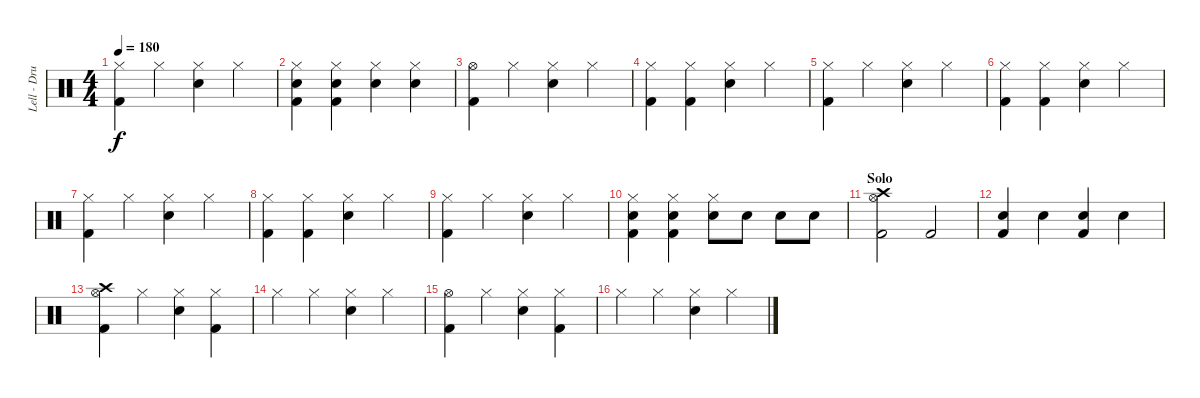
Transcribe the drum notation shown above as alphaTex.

\track ("Lell - Drums" "Lell - Dru") {instrument percussion}
\staff {score}
\articulation defaults
\ts (4 4)
\tempo 180
\clef neutral
\ks c
("Hi-Hat (closed)" "Kick (hit) 2").4{dy f} "Hi-Hat (closed)".4 ("Hi-Hat (closed)" "Snare (hit) 2").4 "Hi-Hat (closed)".4 |
("Hi-Hat (closed)" "Snare (hit) 2" "Kick (hit) 2").4 ("Hi-Hat (closed)" "Snare (hit) 2" "Kick (hit) 2").4 ("Hi-Hat (closed)" "Snare (hit) 2").4 ("Hi-Hat (closed)" "Snare (hit) 2").4 |
("Hi-Hat (open)" "Kick (hit) 2").4 "Hi-Hat (closed)".4 ("Hi-Hat (closed)" "Snare (hit) 2").4 "Hi-Hat (closed)".4 |
("Hi-Hat (closed)" "Kick (hit) 2").4 ("Hi-Hat (closed)" "Kick (hit) 2").4 ("Hi-Hat (closed)" "Snare (hit) 2").4 "Hi-Hat (closed)".4 |
("Hi-Hat (closed)" "Kick (hit) 2").4 "Hi-Hat (closed)".4 ("Hi-Hat (closed)" "Snare (hit) 2").4 "Hi-Hat (closed)".4 |
("Hi-Hat (closed)" "Kick (hit) 2").4 ("Hi-Hat (closed)" "Kick (hit) 2").4 ("Hi-Hat (closed)" "Snare (hit) 2").4 "Hi-Hat (closed)".4 |
("Hi-Hat (closed)" "Kick (hit) 2").4 "Hi-Hat (closed)".4 ("Hi-Hat (closed)" "Snare (hit) 2").4 "Hi-Hat (closed)".4 |
("Hi-Hat (closed)" "Kick (hit) 2").4 ("Hi-Hat (closed)" "Kick (hit) 2").4 ("Hi-Hat (closed)" "Snare (hit) 2").4 "Hi-Hat (closed)".4 |
("Hi-Hat (closed)" "Kick (hit) 2").4 "Hi-Hat (closed)".4 ("Hi-Hat (closed)" "Snare (hit) 2").4 "Hi-Hat (closed)".4 |
("Hi-Hat (closed)" "Snare (hit) 2" "Kick (hit) 2").4 ("Hi-Hat (closed)" "Snare (hit) 2" "Kick (hit) 2").4 ("Hi-Hat (closed)" "Snare (hit) 2").8 "Snare (hit) 2".8 "Snare (hit) 2".8 "Snare (hit) 2".8 |
\section ("" "Solo")
("Crash high (hit)" "Hi-Hat (open)" "Kick (hit) 2").2 "Kick (hit) 2".2 |
("Snare (hit) 2" "Kick (hit) 2").4 "Snare (hit) 2".4 ("Snare (hit) 2" "Kick (hit) 2").4 "Snare (hit) 2".4 |
("Crash high (hit)" "Hi-Hat (open)" "Kick (hit) 2").4 "Hi-Hat (closed)".4 ("Hi-Hat (closed)" "Snare (hit) 2").4 ("Hi-Hat (closed)" "Kick (hit) 2").4 |
"Hi-Hat (closed)".4 "Hi-Hat (closed)".4 ("Hi-Hat (closed)" "Snare (hit) 2").4 "Hi-Hat (closed)".4 |
("Hi-Hat (open)" "Kick (hit) 2").4 "Hi-Hat (closed)".4 ("Hi-Hat (closed)" "Snare (hit) 2").4 ("Hi-Hat (closed)" "Kick (hit) 2").4 |
"Hi-Hat (closed)".4 "Hi-Hat (closed)".4 ("Hi-Hat (closed)" "Snare (hit) 2").4 "Hi-Hat (closed)".4
